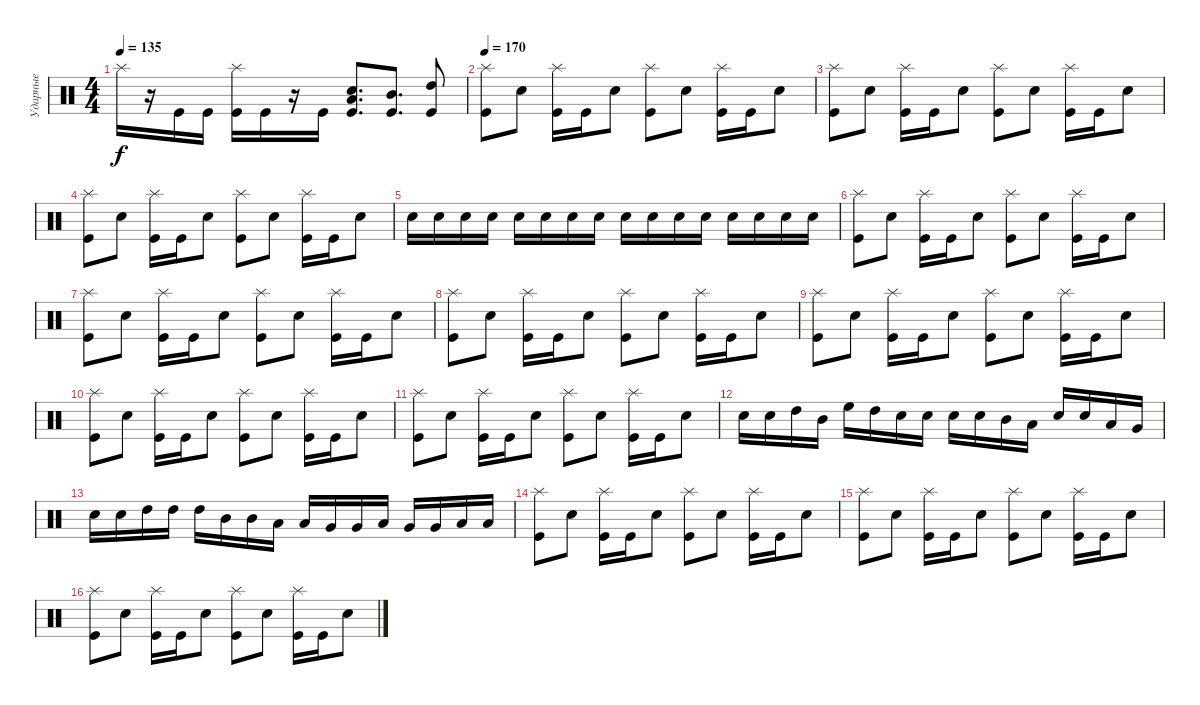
\track ("Ударные" "Ударные") {instrument percussion}
\staff {score}
\articulation defaults
\ts (4 4)
\tempo 135
\clef neutral
\ks c "Splash (hit)".16{dy f}
r.16 "Kick (hit)".16 "Kick (hit)".16 ("Kick (hit)" "Splash (hit)").16 "Kick (hit)".16 r.16 "Kick (hit)".16 ("Kick (hit)" "Snare (hit) 2" "Low Tom (hit)").8{d} ("Kick (hit)" "Mid Tom (hit)").8{d} ("Kick (hit)" "High Tom (hit)").8 |
\tempo 170
("Kick (hit)" "Splash (hit)").8 "Snare (hit) 2".8 ("Kick (hit)" "Splash (hit)").16 "Kick (hit)".16 "Snare (hit) 2".8 ("Kick (hit)" "Splash (hit)").8 "Snare (hit) 2".8 ("Kick (hit)" "Splash (hit)").16 "Kick (hit)".16 "Snare (hit) 2".8 |
("Kick (hit)" "Splash (hit)").8 "Snare (hit) 2".8 ("Kick (hit)" "Splash (hit)").16 "Kick (hit)".16 "Snare (hit) 2".8 ("Kick (hit)" "Splash (hit)").8 "Snare (hit) 2".8 ("Kick (hit)" "Splash (hit)").16 "Kick (hit)".16 "Snare (hit) 2".8 |
("Kick (hit)" "Splash (hit)").8 "Snare (hit) 2".8 ("Kick (hit)" "Splash (hit)").16 "Kick (hit)".16 "Snare (hit) 2".8 ("Kick (hit)" "Splash (hit)").8 "Snare (hit) 2".8 ("Kick (hit)" "Splash (hit)").16 "Kick (hit)".16 "Snare (hit) 2".8 |
"Snare (hit) 2".16 "Snare (hit) 2".16 "Snare (hit) 2".16 "Snare (hit) 2".16 "Snare (hit) 2".16 "Snare (hit) 2".16 "Snare (hit) 2".16 "Snare (hit) 2".16 "Snare (hit) 2".16 "Snare (hit) 2".16 "Snare (hit) 2".16 "Snare (hit) 2".16 "Snare (hit) 2".16 "Snare (hit) 2".16 "Snare (hit) 2".16 "Snare (hit) 2".16 |
("Kick (hit)" "Splash (hit)").8 "Snare (hit) 2".8 ("Kick (hit)" "Splash (hit)").16 "Kick (hit)".16 "Snare (hit) 2".8 ("Kick (hit)" "Splash (hit)").8 "Snare (hit) 2".8 ("Kick (hit)" "Splash (hit)").16 "Kick (hit)".16 "Snare (hit) 2".8 |
("Kick (hit)" "Splash (hit)").8 "Snare (hit) 2".8 ("Kick (hit)" "Splash (hit)").16 "Kick (hit)".16 "Snare (hit) 2".8 ("Kick (hit)" "Splash (hit)").8 "Snare (hit) 2".8 ("Kick (hit)" "Splash (hit)").16 "Kick (hit)".16 "Snare (hit) 2".8 |
("Kick (hit)" "Splash (hit)").8 "Snare (hit) 2".8 ("Kick (hit)" "Splash (hit)").16 "Kick (hit)".16 "Snare (hit) 2".8 ("Kick (hit)" "Splash (hit)").8 "Snare (hit) 2".8 ("Kick (hit)" "Splash (hit)").16 "Kick (hit)".16 "Snare (hit) 2".8 |
("Kick (hit)" "Splash (hit)").8 "Snare (hit) 2".8 ("Kick (hit)" "Splash (hit)").16 "Kick (hit)".16 "Snare (hit) 2".8 ("Kick (hit)" "Splash (hit)").8 "Snare (hit) 2".8 ("Kick (hit)" "Splash (hit)").16 "Kick (hit)".16 "Snare (hit) 2".8 |
("Kick (hit)" "Splash (hit)").8 "Snare (hit) 2".8 ("Kick (hit)" "Splash (hit)").16 "Kick (hit)".16 "Snare (hit) 2".8 ("Kick (hit)" "Splash (hit)").8 "Snare (hit) 2".8 ("Kick (hit)" "Splash (hit)").16 "Kick (hit)".16 "Snare (hit) 2".8 |
("Kick (hit)" "Splash (hit)").8 "Snare (hit) 2".8 ("Kick (hit)" "Splash (hit)").16 "Kick (hit)".16 "Snare (hit) 2".8 ("Kick (hit)" "Splash (hit)").8 "Snare (hit) 2".8 ("Kick (hit)" "Splash (hit)").16 "Kick (hit)".16 "Snare (hit) 2".8 |
"Snare (hit) 2".16 "Snare (hit) 2".16 "High Tom (hit)".16 "Mid Tom (hit)".16 "High Floor Tom (hit)".16 "High Tom (hit)".16 "Snare (hit) 2".16 "Snare (hit) 2".16 "Snare (hit) 2".16 "Snare (hit) 2".16 "Mid Tom (hit)".16 "Low Tom (hit)".16 "Snare (hit) 2".16 "Snare (hit) 2".16 "Low Tom (hit)".16 "Very Low Tom (hit)".16 |
"Snare (hit) 2".16 "Snare (hit) 2".16 "High Tom (hit)".16 "High Tom (hit)".16 "High Tom (hit)".16 "Mid Tom (hit)".16 "Mid Tom (hit)".16 "Low Tom (hit)".16 "Low Tom (hit)".16 "Very Low Tom (hit)".16 "Very Low Tom (hit)".16 "Low Floor Tom (hit)".16 "Very Low Tom (hit)".16 "Very Low Tom (hit)".16 "Low Tom (hit)".16 "Low Tom (hit)".16 |
("Kick (hit)" "Splash (hit)").8 "Snare (hit) 2".8 ("Kick (hit)" "Splash (hit)").16 "Kick (hit)".16 "Snare (hit) 2".8 ("Kick (hit)" "Splash (hit)").8 "Snare (hit) 2".8 ("Kick (hit)" "Splash (hit)").16 "Kick (hit)".16 "Snare (hit) 2".8 |
("Kick (hit)" "Splash (hit)").8 "Snare (hit) 2".8 ("Kick (hit)" "Splash (hit)").16 "Kick (hit)".16 "Snare (hit) 2".8 ("Kick (hit)" "Splash (hit)").8 "Snare (hit) 2".8 ("Kick (hit)" "Splash (hit)").16 "Kick (hit)".16 "Snare (hit) 2".8 |
("Kick (hit)" "Splash (hit)").8 "Snare (hit) 2".8 ("Kick (hit)" "Splash (hit)").16 "Kick (hit)".16 "Snare (hit) 2".8 ("Kick (hit)" "Splash (hit)").8 "Snare (hit) 2".8 ("Kick (hit)" "Splash (hit)").16 "Kick (hit)".16 "Snare (hit) 2".8
